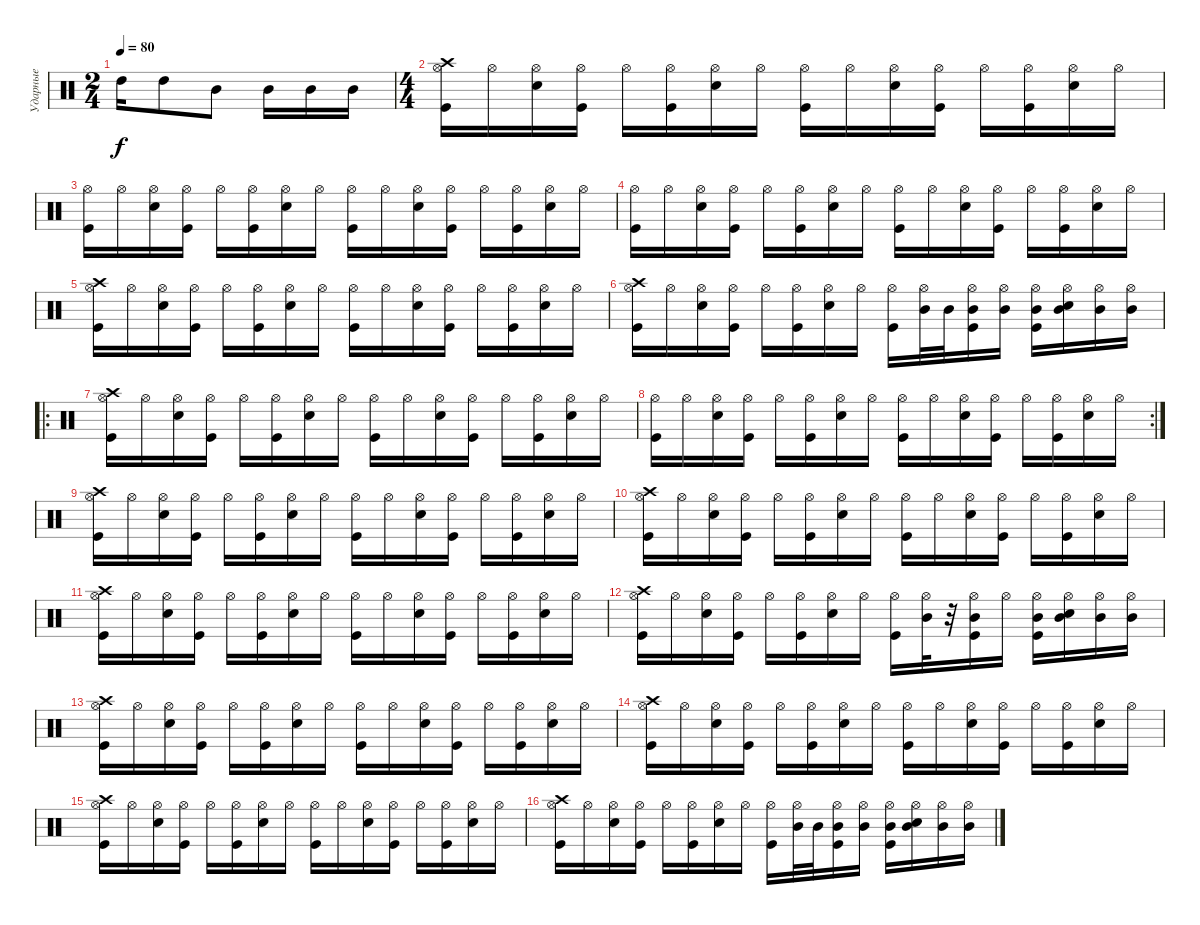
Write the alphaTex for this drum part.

\track ("Ударные" "Ударные") {instrument percussion}
\staff {score}
\articulation defaults
\ts (2 4)
\tempo 80
\clef neutral
\ks c "High Tom (hit)".16{dy f} "High Tom (hit)".8 "Mid Tom (hit)".8 "Mid Tom (hit)".16 "Mid Tom (hit)".16 "Mid Tom (hit)".16
|
\ts (4 4)
("Kick (hit)" "Crash high (hit)" "Hi-Hat (open)").16 "Hi-Hat (open)".16 ("Electric Snare (hit)" "Hi-Hat (open)").16 ("Kick (hit)" "Hi-Hat (open)").16 "Hi-Hat (open)".16 ("Hi-Hat (open)" "Kick (hit)").16 ("Hi-Hat (open)" "Electric Snare (hit)").16 "Hi-Hat (open)".16 ("Kick (hit)" "Hi-Hat (open)").16 "Hi-Hat (open)".16 ("Electric Snare (hit)" "Hi-Hat (open)").16 ("Kick (hit)" "Hi-Hat (open)").16 "Hi-Hat (open)".16 ("Hi-Hat (open)" "Kick (hit)").16 ("Hi-Hat (open)" "Electric Snare (hit)").16 "Hi-Hat (open)".16 |
("Kick (hit)" "Hi-Hat (open)").16 "Hi-Hat (open)".16 ("Electric Snare (hit)" "Hi-Hat (open)").16 ("Kick (hit)" "Hi-Hat (open)").16 "Hi-Hat (open)".16 ("Hi-Hat (open)" "Kick (hit)").16 ("Hi-Hat (open)" "Electric Snare (hit)").16 "Hi-Hat (open)".16 ("Kick (hit)" "Hi-Hat (open)").16 "Hi-Hat (open)".16 ("Electric Snare (hit)" "Hi-Hat (open)").16 ("Kick (hit)" "Hi-Hat (open)").16 "Hi-Hat (open)".16 ("Hi-Hat (open)" "Kick (hit)").16 ("Hi-Hat (open)" "Electric Snare (hit)").16 "Hi-Hat (open)".16 |
("Kick (hit)" "Hi-Hat (open)").16 "Hi-Hat (open)".16 ("Electric Snare (hit)" "Hi-Hat (open)").16 ("Kick (hit)" "Hi-Hat (open)").16 "Hi-Hat (open)".16 ("Hi-Hat (open)" "Kick (hit)").16 ("Hi-Hat (open)" "Electric Snare (hit)").16 "Hi-Hat (open)".16 ("Kick (hit)" "Hi-Hat (open)").16 "Hi-Hat (open)".16 ("Electric Snare (hit)" "Hi-Hat (open)").16 ("Kick (hit)" "Hi-Hat (open)").16 "Hi-Hat (open)".16 ("Hi-Hat (open)" "Kick (hit)").16 ("Hi-Hat (open)" "Electric Snare (hit)").16 "Hi-Hat (open)".16 |
("Kick (hit)" "Crash high (hit)" "Hi-Hat (open)").16 "Hi-Hat (open)".16 ("Electric Snare (hit)" "Hi-Hat (open)").16 ("Kick (hit)" "Hi-Hat (open)").16 "Hi-Hat (open)".16 ("Hi-Hat (open)" "Kick (hit)").16 ("Hi-Hat (open)" "Electric Snare (hit)").16 "Hi-Hat (open)".16 ("Kick (hit)" "Hi-Hat (open)").16 "Hi-Hat (open)".16 ("Electric Snare (hit)" "Hi-Hat (open)").16 ("Kick (hit)" "Hi-Hat (open)").16 "Hi-Hat (open)".16 ("Hi-Hat (open)" "Kick (hit)").16 ("Hi-Hat (open)" "Electric Snare (hit)").16 "Hi-Hat (open)".16 |
("Kick (hit)" "Crash high (hit)" "Hi-Hat (open)").16 "Hi-Hat (open)".16 ("Electric Snare (hit)" "Hi-Hat (open)").16 ("Kick (hit)" "Hi-Hat (open)").16 "Hi-Hat (open)".16 ("Hi-Hat (open)" "Kick (hit)").16 ("Hi-Hat (open)" "Electric Snare (hit)").16 "Hi-Hat (open)".16 ("Kick (hit)" "Hi-Hat (open)").16 ("Hi-Hat (open)" "Mid Tom (hit)").32 "Mid Tom (hit)".32 ("Kick (hit)" "Hi-Hat (open)" "Mid Tom (hit)").16 ("Hi-Hat (open)" "Mid Tom (hit)").16 ("Hi-Hat (open)" "Kick (hit)" "Mid Tom (hit)").16 ("Hi-Hat (open)" "Electric Snare (hit)" "Mid Tom (hit)").16 ("Hi-Hat (open)" "Mid Tom (hit)").16 ("Hi-Hat (open)" "Mid Tom (hit)").16 |
\ro
("Kick (hit)" "Crash high (hit)" "Hi-Hat (open)").16 "Hi-Hat (open)".16 ("Electric Snare (hit)" "Hi-Hat (open)").16 ("Kick (hit)" "Hi-Hat (open)").16 "Hi-Hat (open)".16 ("Hi-Hat (open)" "Kick (hit)").16 ("Hi-Hat (open)" "Electric Snare (hit)").16 "Hi-Hat (open)".16 ("Kick (hit)" "Hi-Hat (open)").16 "Hi-Hat (open)".16 ("Electric Snare (hit)" "Hi-Hat (open)").16 ("Kick (hit)" "Hi-Hat (open)").16 "Hi-Hat (open)".16 ("Hi-Hat (open)" "Kick (hit)").16 ("Hi-Hat (open)" "Electric Snare (hit)").16 "Hi-Hat (open)".16 |
\rc 2
("Kick (hit)" "Hi-Hat (open)").16 "Hi-Hat (open)".16 ("Electric Snare (hit)" "Hi-Hat (open)").16 ("Kick (hit)" "Hi-Hat (open)").16 "Hi-Hat (open)".16 ("Hi-Hat (open)" "Kick (hit)").16 ("Hi-Hat (open)" "Electric Snare (hit)").16 "Hi-Hat (open)".16 ("Kick (hit)" "Hi-Hat (open)").16 "Hi-Hat (open)".16 ("Electric Snare (hit)" "Hi-Hat (open)").16 ("Kick (hit)" "Hi-Hat (open)").16 "Hi-Hat (open)".16 ("Hi-Hat (open)" "Kick (hit)").16 ("Hi-Hat (open)" "Electric Snare (hit)").16 "Hi-Hat (open)".16 |
("Kick (hit)" "Crash high (hit)" "Hi-Hat (open)").16 "Hi-Hat (open)".16 ("Electric Snare (hit)" "Hi-Hat (open)").16 ("Kick (hit)" "Hi-Hat (open)").16 "Hi-Hat (open)".16 ("Hi-Hat (open)" "Kick (hit)").16 ("Hi-Hat (open)" "Electric Snare (hit)").16 "Hi-Hat (open)".16 ("Kick (hit)" "Hi-Hat (open)").16 "Hi-Hat (open)".16 ("Electric Snare (hit)" "Hi-Hat (open)").16 ("Kick (hit)" "Hi-Hat (open)").16 "Hi-Hat (open)".16 ("Hi-Hat (open)" "Kick (hit)").16 ("Hi-Hat (open)" "Electric Snare (hit)").16 "Hi-Hat (open)".16 |
("Kick (hit)" "Crash high (hit)" "Hi-Hat (open)").16 "Hi-Hat (open)".16 ("Electric Snare (hit)" "Hi-Hat (open)").16 ("Kick (hit)" "Hi-Hat (open)").16 "Hi-Hat (open)".16 ("Hi-Hat (open)" "Kick (hit)").16 ("Hi-Hat (open)" "Electric Snare (hit)").16 "Hi-Hat (open)".16 ("Kick (hit)" "Hi-Hat (open)").16 "Hi-Hat (open)".16 ("Electric Snare (hit)" "Hi-Hat (open)").16 ("Kick (hit)" "Hi-Hat (open)").16 "Hi-Hat (open)".16 ("Hi-Hat (open)" "Kick (hit)").16 ("Hi-Hat (open)" "Electric Snare (hit)").16 "Hi-Hat (open)".16 |
("Kick (hit)" "Crash high (hit)" "Hi-Hat (open)").16 "Hi-Hat (open)".16 ("Electric Snare (hit)" "Hi-Hat (open)").16 ("Kick (hit)" "Hi-Hat (open)").16 "Hi-Hat (open)".16 ("Hi-Hat (open)" "Kick (hit)").16 ("Hi-Hat (open)" "Electric Snare (hit)").16 "Hi-Hat (open)".16 ("Kick (hit)" "Hi-Hat (open)").16 "Hi-Hat (open)".16 ("Electric Snare (hit)" "Hi-Hat (open)").16 ("Kick (hit)" "Hi-Hat (open)").16 "Hi-Hat (open)".16 ("Hi-Hat (open)" "Kick (hit)").16 ("Hi-Hat (open)" "Electric Snare (hit)").16 "Hi-Hat (open)".16 |
("Kick (hit)" "Crash high (hit)" "Hi-Hat (open)").16 "Hi-Hat (open)".16 ("Electric Snare (hit)" "Hi-Hat (open)").16 ("Kick (hit)" "Hi-Hat (open)").16 "Hi-Hat (open)".16 ("Hi-Hat (open)" "Kick (hit)").16 ("Hi-Hat (open)" "Electric Snare (hit)").16 "Hi-Hat (open)".16 ("Kick (hit)" "Hi-Hat (open)").16 ("Hi-Hat (open)" "Mid Tom (hit)").32 r.32 ("Kick (hit)" "Hi-Hat (open)" "Mid Tom (hit)").16 "Hi-Hat (open)".16 ("Hi-Hat (open)" "Kick (hit)" "Mid Tom (hit)").16 ("Hi-Hat (open)" "Electric Snare (hit)" "Mid Tom (hit)").16 ("Hi-Hat (open)" "Mid Tom (hit)").16 ("Hi-Hat (open)" "Mid Tom (hit)").16 |
("Kick (hit)" "Crash high (hit)" "Hi-Hat (open)").16 "Hi-Hat (open)".16 ("Electric Snare (hit)" "Hi-Hat (open)").16 ("Kick (hit)" "Hi-Hat (open)").16 "Hi-Hat (open)".16 ("Hi-Hat (open)" "Kick (hit)").16 ("Hi-Hat (open)" "Electric Snare (hit)").16 "Hi-Hat (open)".16 ("Kick (hit)" "Hi-Hat (open)").16 "Hi-Hat (open)".16 ("Electric Snare (hit)" "Hi-Hat (open)").16 ("Kick (hit)" "Hi-Hat (open)").16 "Hi-Hat (open)".16 ("Hi-Hat (open)" "Kick (hit)").16 ("Hi-Hat (open)" "Electric Snare (hit)").16 "Hi-Hat (open)".16 |
("Kick (hit)" "Crash high (hit)" "Hi-Hat (open)").16 "Hi-Hat (open)".16 ("Electric Snare (hit)" "Hi-Hat (open)").16 ("Kick (hit)" "Hi-Hat (open)").16 "Hi-Hat (open)".16 ("Hi-Hat (open)" "Kick (hit)").16 ("Hi-Hat (open)" "Electric Snare (hit)").16 "Hi-Hat (open)".16 ("Kick (hit)" "Hi-Hat (open)").16 "Hi-Hat (open)".16 ("Electric Snare (hit)" "Hi-Hat (open)").16 ("Kick (hit)" "Hi-Hat (open)").16 "Hi-Hat (open)".16 ("Hi-Hat (open)" "Kick (hit)").16 ("Hi-Hat (open)" "Electric Snare (hit)").16 "Hi-Hat (open)".16 |
("Kick (hit)" "Crash high (hit)" "Hi-Hat (open)").16 "Hi-Hat (open)".16 ("Electric Snare (hit)" "Hi-Hat (open)").16 ("Kick (hit)" "Hi-Hat (open)").16 "Hi-Hat (open)".16 ("Hi-Hat (open)" "Kick (hit)").16 ("Hi-Hat (open)" "Electric Snare (hit)").16 "Hi-Hat (open)".16 ("Kick (hit)" "Hi-Hat (open)").16 "Hi-Hat (open)".16 ("Electric Snare (hit)" "Hi-Hat (open)").16 ("Kick (hit)" "Hi-Hat (open)").16 "Hi-Hat (open)".16 ("Hi-Hat (open)" "Kick (hit)").16 ("Hi-Hat (open)" "Electric Snare (hit)").16 "Hi-Hat (open)".16 |
("Kick (hit)" "Crash high (hit)" "Hi-Hat (open)").16 "Hi-Hat (open)".16 ("Electric Snare (hit)" "Hi-Hat (open)").16 ("Kick (hit)" "Hi-Hat (open)").16 "Hi-Hat (open)".16 ("Hi-Hat (open)" "Kick (hit)").16 ("Hi-Hat (open)" "Electric Snare (hit)").16 "Hi-Hat (open)".16 ("Kick (hit)" "Hi-Hat (open)").16 ("Hi-Hat (open)" "Mid Tom (hit)").32 "Mid Tom (hit)".32 ("Kick (hit)" "Hi-Hat (open)" "Mid Tom (hit)").16 ("Hi-Hat (open)" "Mid Tom (hit)").16 ("Hi-Hat (open)" "Kick (hit)" "Mid Tom (hit)").16 ("Hi-Hat (open)" "Electric Snare (hit)" "Mid Tom (hit)").16 ("Hi-Hat (open)" "Mid Tom (hit)").16 ("Hi-Hat (open)" "Mid Tom (hit)").16
